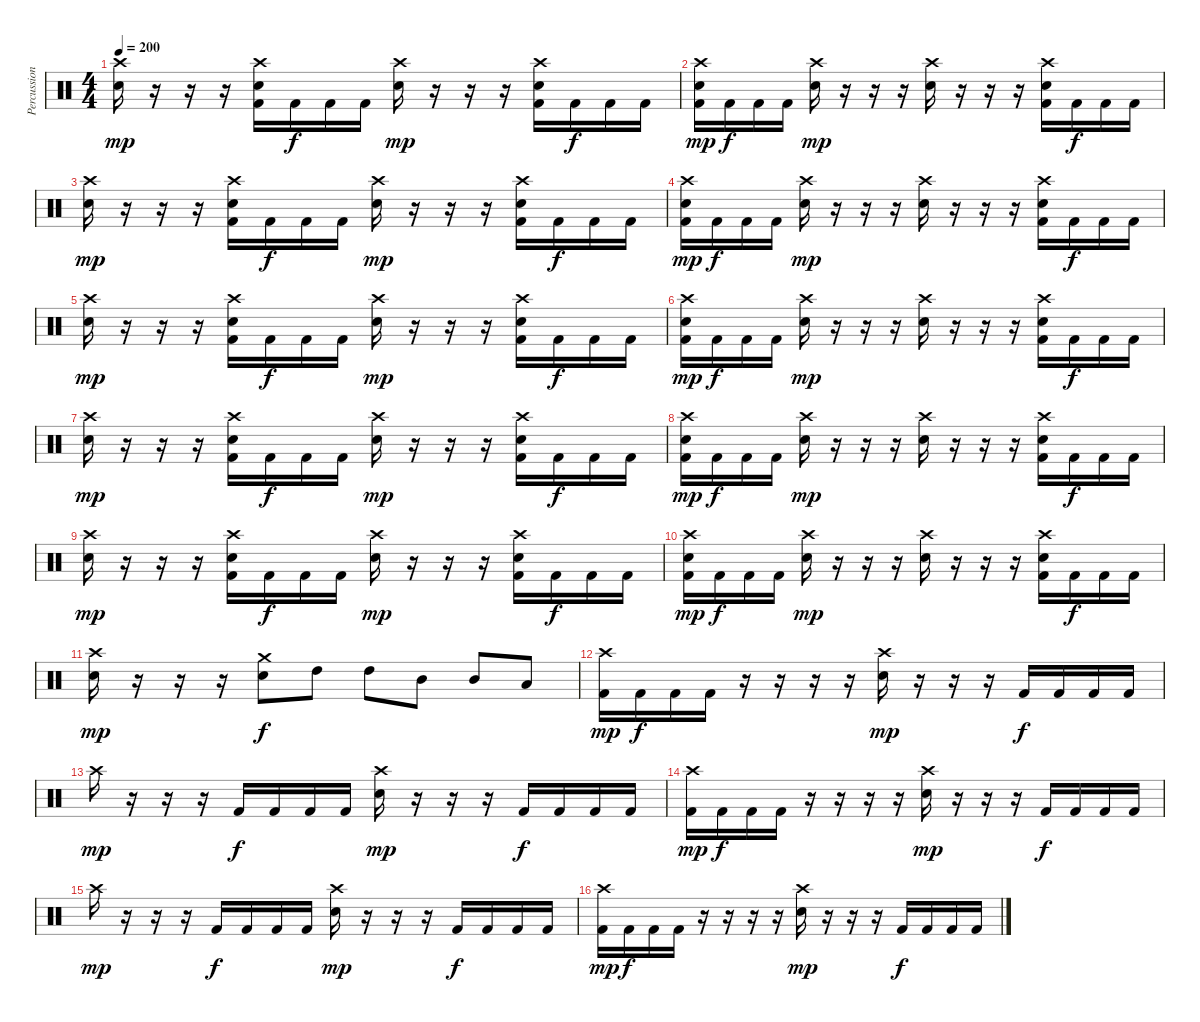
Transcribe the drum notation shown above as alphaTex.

\track ("Percussions ( Brylle )" "Percussion") {instrument percussion}
\staff {score}
\articulation defaults
\ts (4 4)
\tempo 200
\clef neutral
\ks c
("Crash high (hit)" "Electric Snare (hit)").16{dy mp} r.16 r.16 r.16 ("Crash high (hit)" "Electric Snare (hit)" "Kick (hit) 2").16 "Kick (hit) 2".16{dy f} "Kick (hit) 2".16 "Kick (hit) 2".16 ("Crash high (hit)" "Electric Snare (hit)").16{dy mp} r.16 r.16 r.16 ("Crash high (hit)" "Electric Snare (hit)" "Kick (hit) 2").16 "Kick (hit) 2".16{dy f} "Kick (hit) 2".16 "Kick (hit) 2".16 |
("Crash high (hit)" "Electric Snare (hit)" "Kick (hit) 2").16{dy mp} "Kick (hit) 2".16{dy f} "Kick (hit) 2".16 "Kick (hit) 2".16 ("Crash high (hit)" "Electric Snare (hit)").16{dy mp} r.16 r.16 r.16 ("Crash high (hit)" "Electric Snare (hit)").16 r.16 r.16 r.16 ("Crash high (hit)" "Electric Snare (hit)" "Kick (hit) 2").16 "Kick (hit) 2".16{dy f} "Kick (hit) 2".16 "Kick (hit) 2".16 |
("Crash high (hit)" "Electric Snare (hit)").16{dy mp} r.16 r.16 r.16 ("Crash high (hit)" "Electric Snare (hit)" "Kick (hit) 2").16 "Kick (hit) 2".16{dy f} "Kick (hit) 2".16 "Kick (hit) 2".16 ("Crash high (hit)" "Electric Snare (hit)").16{dy mp} r.16 r.16 r.16 ("Crash high (hit)" "Electric Snare (hit)" "Kick (hit) 2").16 "Kick (hit) 2".16{dy f} "Kick (hit) 2".16 "Kick (hit) 2".16 |
("Crash high (hit)" "Electric Snare (hit)" "Kick (hit) 2").16{dy mp} "Kick (hit) 2".16{dy f} "Kick (hit) 2".16 "Kick (hit) 2".16 ("Crash high (hit)" "Electric Snare (hit)").16{dy mp} r.16 r.16 r.16 ("Crash high (hit)" "Electric Snare (hit)").16 r.16 r.16 r.16 ("Crash high (hit)" "Electric Snare (hit)" "Kick (hit) 2").16 "Kick (hit) 2".16{dy f} "Kick (hit) 2".16 "Kick (hit) 2".16 |
("Crash high (hit)" "Electric Snare (hit)").16{dy mp} r.16 r.16 r.16 ("Crash high (hit)" "Electric Snare (hit)" "Kick (hit) 2").16 "Kick (hit) 2".16{dy f} "Kick (hit) 2".16 "Kick (hit) 2".16 ("Crash high (hit)" "Electric Snare (hit)").16{dy mp} r.16 r.16 r.16 ("Crash high (hit)" "Electric Snare (hit)" "Kick (hit) 2").16 "Kick (hit) 2".16{dy f} "Kick (hit) 2".16 "Kick (hit) 2".16 |
("Crash high (hit)" "Electric Snare (hit)" "Kick (hit) 2").16{dy mp} "Kick (hit) 2".16{dy f} "Kick (hit) 2".16 "Kick (hit) 2".16 ("Crash high (hit)" "Electric Snare (hit)").16{dy mp} r.16 r.16 r.16 ("Crash high (hit)" "Electric Snare (hit)").16 r.16 r.16 r.16 ("Crash high (hit)" "Electric Snare (hit)" "Kick (hit) 2").16 "Kick (hit) 2".16{dy f} "Kick (hit) 2".16 "Kick (hit) 2".16 |
("Crash high (hit)" "Electric Snare (hit)").16{dy mp} r.16 r.16 r.16 ("Crash high (hit)" "Electric Snare (hit)" "Kick (hit) 2").16 "Kick (hit) 2".16{dy f} "Kick (hit) 2".16 "Kick (hit) 2".16 ("Crash high (hit)" "Electric Snare (hit)").16{dy mp} r.16 r.16 r.16 ("Crash high (hit)" "Electric Snare (hit)" "Kick (hit) 2").16 "Kick (hit) 2".16{dy f} "Kick (hit) 2".16 "Kick (hit) 2".16 |
("Crash high (hit)" "Electric Snare (hit)" "Kick (hit) 2").16{dy mp} "Kick (hit) 2".16{dy f} "Kick (hit) 2".16 "Kick (hit) 2".16 ("Crash high (hit)" "Electric Snare (hit)").16{dy mp} r.16 r.16 r.16 ("Crash high (hit)" "Electric Snare (hit)").16 r.16 r.16 r.16 ("Crash high (hit)" "Electric Snare (hit)" "Kick (hit) 2").16 "Kick (hit) 2".16{dy f} "Kick (hit) 2".16 "Kick (hit) 2".16 |
("Crash high (hit)" "Electric Snare (hit)").16{dy mp} r.16 r.16 r.16 ("Crash high (hit)" "Electric Snare (hit)" "Kick (hit) 2").16 "Kick (hit) 2".16{dy f} "Kick (hit) 2".16 "Kick (hit) 2".16 ("Crash high (hit)" "Electric Snare (hit)").16{dy mp} r.16 r.16 r.16 ("Crash high (hit)" "Electric Snare (hit)" "Kick (hit) 2").16 "Kick (hit) 2".16{dy f} "Kick (hit) 2".16 "Kick (hit) 2".16 |
("Crash high (hit)" "Electric Snare (hit)" "Kick (hit) 2").16{dy mp} "Kick (hit) 2".16{dy f} "Kick (hit) 2".16 "Kick (hit) 2".16 ("Crash high (hit)" "Electric Snare (hit)").16{dy mp} r.16 r.16 r.16 ("Crash high (hit)" "Electric Snare (hit)").16 r.16 r.16 r.16 ("Crash high (hit)" "Electric Snare (hit)" "Kick (hit) 2").16 "Kick (hit) 2".16{dy f} "Kick (hit) 2".16 "Kick (hit) 2".16 |
("Crash high (hit)" "Electric Snare (hit)").16{dy mp} r.16 r.16 r.16 ("Crash medium (hit)" "Electric Snare (hit)").8{dy f} "High Tom (hit)".8 "High Tom (hit)".8 "Mid Tom (hit)".8 "Mid Tom (hit)".8 "Low Tom (hit)".8 |
("Crash high (hit)" "Kick (hit) 2").16{dy mp} "Kick (hit) 2".16{dy f} "Kick (hit) 2".16 "Kick (hit) 2".16 r.16 r.16 r.16 r.16 ("Crash high (hit)" "Electric Snare (hit)").16{dy mp} r.16 r.16 r.16 "Kick (hit) 2".16{dy f} "Kick (hit) 2".16 "Kick (hit) 2".16 "Kick (hit) 2".16 |
"Crash high (hit)".16{dy mp} r.16 r.16 r.16 "Kick (hit) 2".16{dy f} "Kick (hit) 2".16 "Kick (hit) 2".16 "Kick (hit) 2".16 ("Crash high (hit)" "Electric Snare (hit)").16{dy mp} r.16 r.16 r.16 "Kick (hit) 2".16{dy f} "Kick (hit) 2".16 "Kick (hit) 2".16 "Kick (hit) 2".16 |
("Crash high (hit)" "Kick (hit) 2").16{dy mp} "Kick (hit) 2".16{dy f} "Kick (hit) 2".16 "Kick (hit) 2".16 r.16 r.16 r.16 r.16 ("Crash high (hit)" "Electric Snare (hit)").16{dy mp} r.16 r.16 r.16 "Kick (hit) 2".16{dy f} "Kick (hit) 2".16 "Kick (hit) 2".16 "Kick (hit) 2".16 |
"Crash high (hit)".16{dy mp} r.16 r.16 r.16 "Kick (hit) 2".16{dy f} "Kick (hit) 2".16 "Kick (hit) 2".16 "Kick (hit) 2".16 ("Crash high (hit)" "Electric Snare (hit)").16{dy mp} r.16 r.16 r.16 "Kick (hit) 2".16{dy f} "Kick (hit) 2".16 "Kick (hit) 2".16 "Kick (hit) 2".16 |
("Crash high (hit)" "Kick (hit) 2").16{dy mp} "Kick (hit) 2".16{dy f} "Kick (hit) 2".16 "Kick (hit) 2".16 r.16 r.16 r.16 r.16 ("Crash high (hit)" "Electric Snare (hit)").16{dy mp} r.16 r.16 r.16 "Kick (hit) 2".16{dy f} "Kick (hit) 2".16 "Kick (hit) 2".16 "Kick (hit) 2".16
